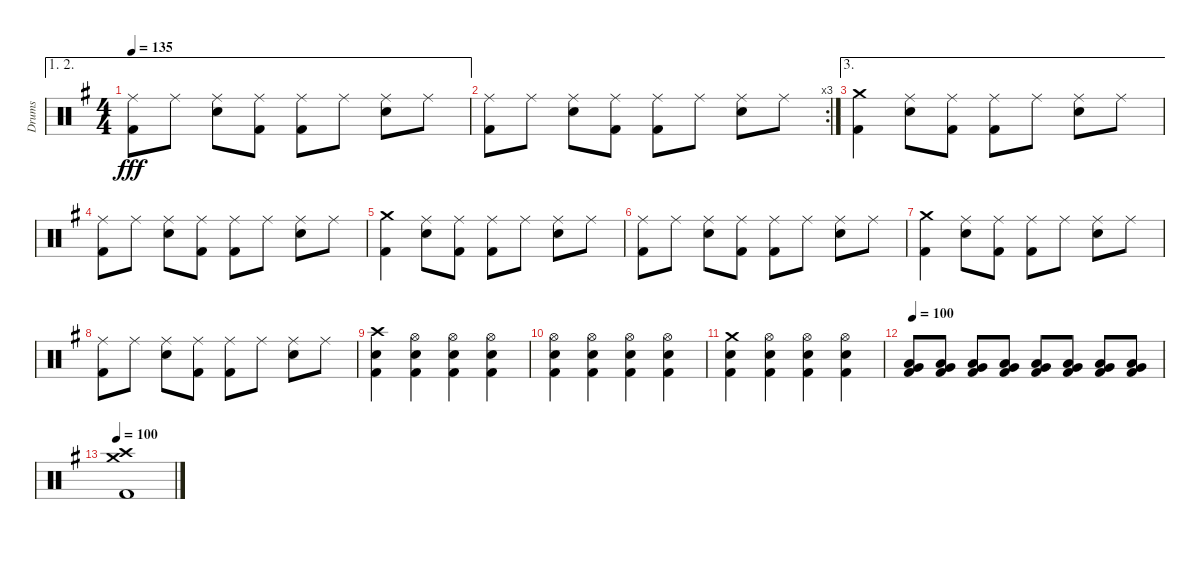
\track ("Drums" "Drums") {instrument percussion}
\staff {score}
\articulation defaults
\ae (1 2)
\ts (4 4)
\tempo 135
\clef neutral
\ks g
("Ride (middle)" "Kick (hit) 2").8{dy fff} "Ride (middle)".8 ("Ride (middle)" "Electric Snare (hit)").8 ("Ride (middle)" "Kick (hit) 2").8 ("Ride (middle)" "Kick (hit) 2").8 "Ride (middle)".8 ("Ride (middle)" "Electric Snare (hit)").8 "Ride (middle)".8 |
\rc 3
("Ride (middle)" "Kick (hit) 2").8 "Ride (middle)".8 ("Ride (middle)" "Electric Snare (hit)").8 ("Ride (middle)" "Kick (hit) 2").8 ("Ride (middle)" "Kick (hit) 2").8 "Ride (middle)".8 ("Ride (middle)" "Electric Snare (hit)").8 "Ride (middle)".8 |
\ae 3
("Crash medium (hit)" "Kick (hit) 2").4 ("Ride (middle)" "Electric Snare (hit)").8 ("Ride (middle)" "Kick (hit) 2").8 ("Ride (middle)" "Kick (hit) 2").8 "Ride (middle)".8 ("Ride (middle)" "Electric Snare (hit)").8 "Ride (middle)".8 |
("Ride (middle)" "Kick (hit) 2").8 "Ride (middle)".8 ("Ride (middle)" "Electric Snare (hit)").8 ("Ride (middle)" "Kick (hit) 2").8 ("Ride (middle)" "Kick (hit) 2").8 "Ride (middle)".8 ("Ride (middle)" "Electric Snare (hit)").8 "Ride (middle)".8 |
("Crash medium (hit)" "Kick (hit) 2").4 ("Ride (middle)" "Electric Snare (hit)").8 ("Ride (middle)" "Kick (hit) 2").8 ("Ride (middle)" "Kick (hit) 2").8 "Ride (middle)".8 ("Ride (middle)" "Electric Snare (hit)").8 "Ride (middle)".8 |
("Ride (middle)" "Kick (hit) 2").8 "Ride (middle)".8 ("Ride (middle)" "Electric Snare (hit)").8 ("Ride (middle)" "Kick (hit) 2").8 ("Ride (middle)" "Kick (hit) 2").8 "Ride (middle)".8 ("Ride (middle)" "Electric Snare (hit)").8 "Ride (middle)".8 |
("Crash medium (hit)" "Kick (hit) 2").4 ("Ride (middle)" "Electric Snare (hit)").8 ("Ride (middle)" "Kick (hit) 2").8 ("Ride (middle)" "Kick (hit) 2").8 "Ride (middle)".8 ("Ride (middle)" "Electric Snare (hit)").8 "Ride (middle)".8 |
("Ride (middle)" "Kick (hit) 2").8 "Ride (middle)".8 ("Ride (middle)" "Electric Snare (hit)").8 ("Ride (middle)" "Kick (hit) 2").8 ("Ride (middle)" "Kick (hit) 2").8 "Ride (middle)".8 ("Ride (middle)" "Electric Snare (hit)").8 "Ride (middle)".8 |
("Crash high (hit)" "Electric Snare (hit)" "Kick (hit) 2").4 ("Hi-Hat (open)" "Electric Snare (hit)" "Kick (hit) 2").4 ("Hi-Hat (open)" "Electric Snare (hit)" "Kick (hit) 2").4 ("Hi-Hat (open)" "Electric Snare (hit)" "Kick (hit) 2").4 |
("Hi-Hat (open)" "Electric Snare (hit)" "Kick (hit) 2").4 ("Hi-Hat (open)" "Electric Snare (hit)" "Kick (hit) 2").4 ("Hi-Hat (open)" "Electric Snare (hit)" "Kick (hit) 2").4 ("Hi-Hat (open)" "Electric Snare (hit)" "Kick (hit) 2").4 |
("Crash medium (hit)" "Electric Snare (hit)" "Kick (hit) 2").4 ("Hi-Hat (open)" "Electric Snare (hit)" "Kick (hit) 2").4 ("Hi-Hat (open)" "Electric Snare (hit)" "Kick (hit) 2").4 ("Hi-Hat (open)" "Electric Snare (hit)" "Kick (hit) 2").4 |
\tempo 100
("Low Tom (hit)" "Very Low Tom (hit)" "Kick (hit) 2").8 ("Low Tom (hit)" "Very Low Tom (hit)" "Kick (hit) 2").8 ("Low Tom (hit)" "Very Low Tom (hit)" "Kick (hit) 2").8 ("Low Tom (hit)" "Very Low Tom (hit)" "Kick (hit) 2").8 ("Low Tom (hit)" "Very Low Tom (hit)" "Kick (hit) 2").8 ("Low Tom (hit)" "Very Low Tom (hit)" "Kick (hit) 2").8 ("Low Tom (hit)" "Very Low Tom (hit)" "Kick (hit) 2").8 ("Low Tom (hit)" "Very Low Tom (hit)" "Kick (hit) 2").8 |
\tempo 100
("Crash high (hit)" "Crash medium (hit)" "Kick (hit) 2").1
